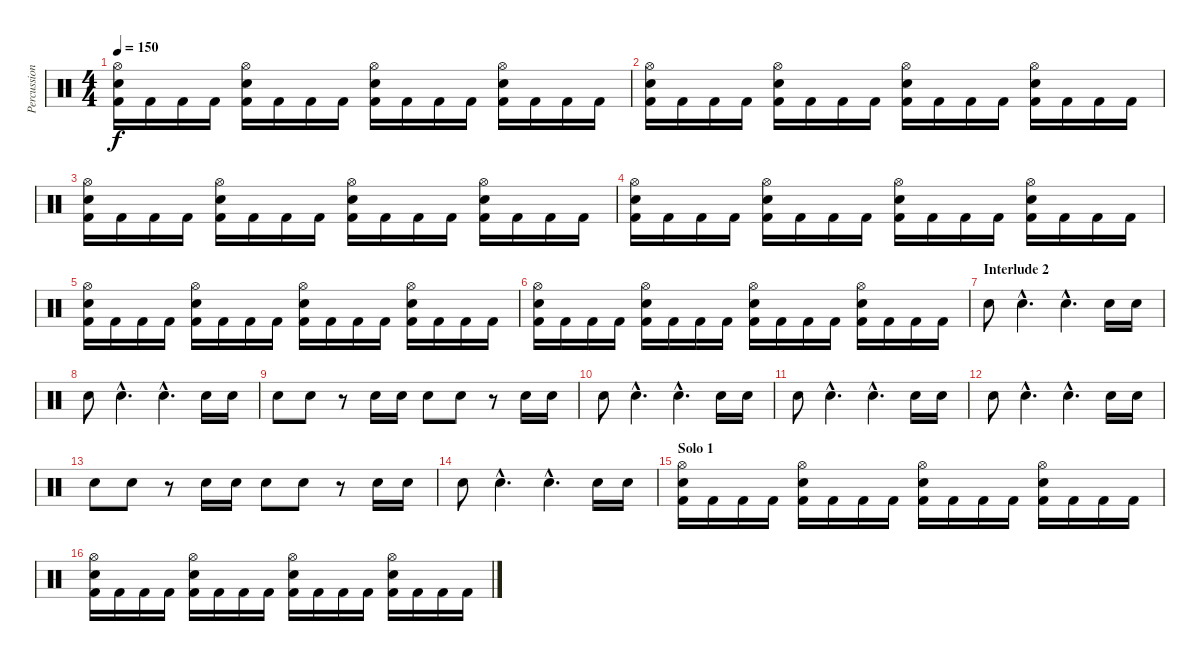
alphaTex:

\track ("Percussion" "Percussion") {instrument percussion}
\staff {score}
\articulation defaults
\ts (4 4)
\tempo 150
\clef neutral
\ks c
("Hi-Hat (open)" "Snare (hit) 2" "Kick (hit) 2").16{dy f} "Kick (hit) 2".16 "Kick (hit) 2".16 "Kick (hit) 2".16 ("Hi-Hat (open)" "Snare (hit) 2" "Kick (hit) 2").16 "Kick (hit) 2".16 "Kick (hit) 2".16 "Kick (hit) 2".16 ("Hi-Hat (open)" "Snare (hit) 2" "Kick (hit) 2").16 "Kick (hit) 2".16 "Kick (hit) 2".16 "Kick (hit) 2".16 ("Hi-Hat (open)" "Snare (hit) 2" "Kick (hit) 2").16 "Kick (hit) 2".16 "Kick (hit) 2".16 "Kick (hit) 2".16 |
("Hi-Hat (open)" "Snare (hit) 2" "Kick (hit) 2").16 "Kick (hit) 2".16 "Kick (hit) 2".16 "Kick (hit) 2".16 ("Hi-Hat (open)" "Snare (hit) 2" "Kick (hit) 2").16 "Kick (hit) 2".16 "Kick (hit) 2".16 "Kick (hit) 2".16 ("Hi-Hat (open)" "Snare (hit) 2" "Kick (hit) 2").16 "Kick (hit) 2".16 "Kick (hit) 2".16 "Kick (hit) 2".16 ("Hi-Hat (open)" "Snare (hit) 2" "Kick (hit) 2").16 "Kick (hit) 2".16 "Kick (hit) 2".16 "Kick (hit) 2".16 |
("Hi-Hat (open)" "Snare (hit) 2" "Kick (hit) 2").16 "Kick (hit) 2".16 "Kick (hit) 2".16 "Kick (hit) 2".16 ("Hi-Hat (open)" "Snare (hit) 2" "Kick (hit) 2").16 "Kick (hit) 2".16 "Kick (hit) 2".16 "Kick (hit) 2".16 ("Hi-Hat (open)" "Snare (hit) 2" "Kick (hit) 2").16 "Kick (hit) 2".16 "Kick (hit) 2".16 "Kick (hit) 2".16 ("Hi-Hat (open)" "Snare (hit) 2" "Kick (hit) 2").16 "Kick (hit) 2".16 "Kick (hit) 2".16 "Kick (hit) 2".16 |
("Hi-Hat (open)" "Snare (hit) 2" "Kick (hit) 2").16 "Kick (hit) 2".16 "Kick (hit) 2".16 "Kick (hit) 2".16 ("Hi-Hat (open)" "Snare (hit) 2" "Kick (hit) 2").16 "Kick (hit) 2".16 "Kick (hit) 2".16 "Kick (hit) 2".16 ("Hi-Hat (open)" "Snare (hit) 2" "Kick (hit) 2").16 "Kick (hit) 2".16 "Kick (hit) 2".16 "Kick (hit) 2".16 ("Hi-Hat (open)" "Snare (hit) 2" "Kick (hit) 2").16 "Kick (hit) 2".16 "Kick (hit) 2".16 "Kick (hit) 2".16 |
("Hi-Hat (open)" "Snare (hit) 2" "Kick (hit) 2").16 "Kick (hit) 2".16 "Kick (hit) 2".16 "Kick (hit) 2".16 ("Hi-Hat (open)" "Snare (hit) 2" "Kick (hit) 2").16 "Kick (hit) 2".16 "Kick (hit) 2".16 "Kick (hit) 2".16 ("Hi-Hat (open)" "Snare (hit) 2" "Kick (hit) 2").16 "Kick (hit) 2".16 "Kick (hit) 2".16 "Kick (hit) 2".16 ("Hi-Hat (open)" "Snare (hit) 2" "Kick (hit) 2").16 "Kick (hit) 2".16 "Kick (hit) 2".16 "Kick (hit) 2".16 |
("Hi-Hat (open)" "Snare (hit) 2" "Kick (hit) 2").16 "Kick (hit) 2".16 "Kick (hit) 2".16 "Kick (hit) 2".16 ("Hi-Hat (open)" "Snare (hit) 2" "Kick (hit) 2").16 "Kick (hit) 2".16 "Kick (hit) 2".16 "Kick (hit) 2".16 ("Hi-Hat (open)" "Snare (hit) 2" "Kick (hit) 2").16 "Kick (hit) 2".16 "Kick (hit) 2".16 "Kick (hit) 2".16 ("Hi-Hat (open)" "Snare (hit) 2" "Kick (hit) 2").16 "Kick (hit) 2".16 "Kick (hit) 2".16 "Kick (hit) 2".16 |
\section ("" "Interlude 2")
"Snare (hit) 2".8 "Snare (hit) 2"{hac}.4{d} "Snare (hit) 2"{hac}.4{d} "Snare (hit) 2".16 "Snare (hit) 2".16 |
"Snare (hit) 2".8 "Snare (hit) 2"{hac}.4{d} "Snare (hit) 2"{hac}.4{d} "Snare (hit) 2".16 "Snare (hit) 2".16 |
"Snare (hit) 2".8 "Snare (hit) 2".8 r.8 "Snare (hit) 2".16 "Snare (hit) 2".16 "Snare (hit) 2".8 "Snare (hit) 2".8 r.8 "Snare (hit) 2".16 "Snare (hit) 2".16 |
"Snare (hit) 2".8 "Snare (hit) 2"{hac}.4{d} "Snare (hit) 2"{hac}.4{d} "Snare (hit) 2".16 "Snare (hit) 2".16 |
"Snare (hit) 2".8 "Snare (hit) 2"{hac}.4{d} "Snare (hit) 2"{hac}.4{d} "Snare (hit) 2".16 "Snare (hit) 2".16 |
"Snare (hit) 2".8 "Snare (hit) 2"{hac}.4{d} "Snare (hit) 2"{hac}.4{d} "Snare (hit) 2".16 "Snare (hit) 2".16 |
"Snare (hit) 2".8 "Snare (hit) 2".8 r.8 "Snare (hit) 2".16 "Snare (hit) 2".16 "Snare (hit) 2".8 "Snare (hit) 2".8 r.8 "Snare (hit) 2".16 "Snare (hit) 2".16 |
"Snare (hit) 2".8 "Snare (hit) 2"{hac}.4{d} "Snare (hit) 2"{hac}.4{d} "Snare (hit) 2".16 "Snare (hit) 2".16 |
\section ("" "Solo 1")
("Hi-Hat (open)" "Snare (hit) 2" "Kick (hit) 2").16 "Kick (hit) 2".16 "Kick (hit) 2".16 "Kick (hit) 2".16 ("Hi-Hat (open)" "Snare (hit) 2" "Kick (hit) 2").16 "Kick (hit) 2".16 "Kick (hit) 2".16 "Kick (hit) 2".16 ("Hi-Hat (open)" "Snare (hit) 2" "Kick (hit) 2").16 "Kick (hit) 2".16 "Kick (hit) 2".16 "Kick (hit) 2".16 ("Hi-Hat (open)" "Snare (hit) 2" "Kick (hit) 2").16 "Kick (hit) 2".16 "Kick (hit) 2".16 "Kick (hit) 2".16 |
("Hi-Hat (open)" "Snare (hit) 2" "Kick (hit) 2").16 "Kick (hit) 2".16 "Kick (hit) 2".16 "Kick (hit) 2".16 ("Hi-Hat (open)" "Snare (hit) 2" "Kick (hit) 2").16 "Kick (hit) 2".16 "Kick (hit) 2".16 "Kick (hit) 2".16 ("Hi-Hat (open)" "Snare (hit) 2" "Kick (hit) 2").16 "Kick (hit) 2".16 "Kick (hit) 2".16 "Kick (hit) 2".16 ("Hi-Hat (open)" "Snare (hit) 2" "Kick (hit) 2").16 "Kick (hit) 2".16 "Kick (hit) 2".16 "Kick (hit) 2".16
